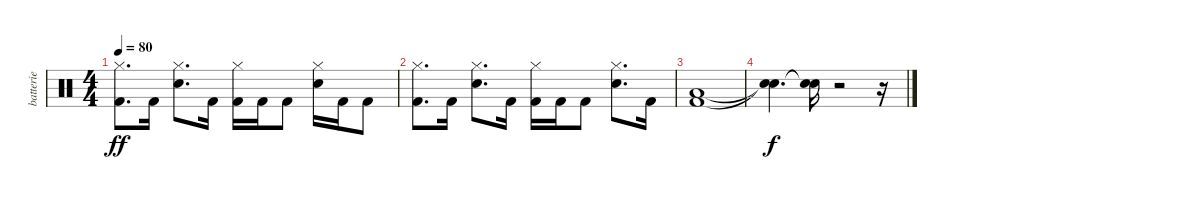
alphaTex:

\track ("batterie" "batterie") {instrument percussion}
\staff {score}
\articulation defaults
\ts (4 4)
\tempo 80
\clef neutral
\ks c
("Kick (hit) 2" "Hi-Hat (closed)").8{d dy ff} "Kick (hit) 2".16 ("Electric Snare (hit)" "Hi-Hat (closed)").8{d} "Kick (hit) 2".16 ("Kick (hit) 2" "Hi-Hat (closed)").16 "Kick (hit) 2".16 "Kick (hit) 2".8 ("Electric Snare (hit)" "Hi-Hat (closed)").16 "Kick (hit) 2".16 "Kick (hit) 2".8 |
("Kick (hit) 2" "Hi-Hat (closed)").8{d} "Kick (hit) 2".16 ("Electric Snare (hit)" "Hi-Hat (closed)").8{d} "Kick (hit) 2".16 ("Kick (hit) 2" "Hi-Hat (closed)").16 "Kick (hit) 2".16 "Kick (hit) 2".8 ("Electric Snare (hit)" "Hi-Hat (closed)").8{d} "Kick (hit) 2".16 |
("Kick (hit) 2" "Low Floor Tom (hit)").1 |
("Snare (hit)"{t} "Snare (hit)"{t}).4{d dy f} ("Snare (hit)"{t} "Snare (hit)"{t}).16 r.2 r.16
